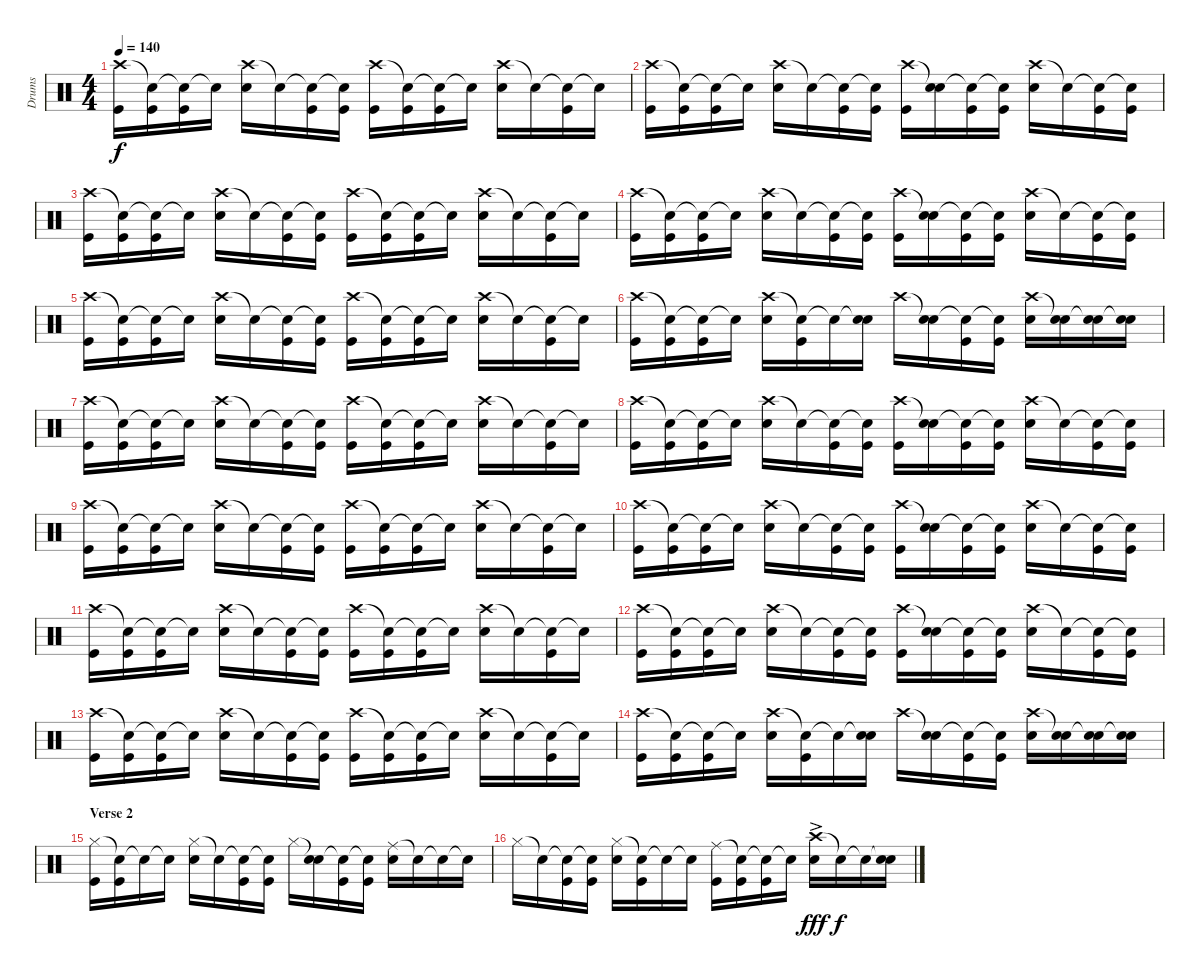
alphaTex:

\track ("Drums" "Drums") {instrument percussion}
\staff {score}
\articulation defaults
\ts (4 4)
\tempo 140
\clef neutral
\ks c
("Crash high (hit)" "Kick (hit)").16{dy f} ("Snare (hit)"{t} "Kick (hit)").16 ("Snare (hit)"{t} "Kick (hit)").16 "Snare (hit)"{t}.16 ("Crash high (hit)" "Electric Snare (hit)").16 "Snare (hit)"{t}.16 ("Snare (hit)"{t} "Kick (hit)").16 ("Snare (hit)"{t} "Kick (hit)").16 ("Crash high (hit)" "Kick (hit)").16 ("Snare (hit)"{t} "Kick (hit)").16 ("Snare (hit)"{t} "Kick (hit)").16 "Snare (hit)"{t}.16 ("Crash high (hit)" "Electric Snare (hit)").16 "Snare (hit)"{t}.16 ("Snare (hit)"{t} "Kick (hit)").16 "Snare (hit)"{t}.16 |
("Crash high (hit)" "Kick (hit)").16 ("Snare (hit)"{t} "Kick (hit)").16 ("Snare (hit)"{t} "Kick (hit)").16 "Snare (hit)"{t}.16 ("Crash high (hit)" "Electric Snare (hit)").16 "Snare (hit)"{t}.16 ("Snare (hit)"{t} "Kick (hit)").16 ("Snare (hit)"{t} "Kick (hit)").16 ("Crash high (hit)" "Kick (hit)").16 ("Snare (hit)"{t} "Electric Snare (hit)").16 ("Snare (hit)"{t} "Kick (hit)").16 ("Snare (hit)"{t} "Kick (hit)").16 ("Crash high (hit)" "Electric Snare (hit)").16 "Snare (hit)"{t}.16 ("Snare (hit)"{t} "Kick (hit)").16 ("Snare (hit)"{t} "Kick (hit)").16 |
("Crash high (hit)" "Kick (hit)").16 ("Snare (hit)"{t} "Kick (hit)").16 ("Snare (hit)"{t} "Kick (hit)").16 "Snare (hit)"{t}.16 ("Crash high (hit)" "Electric Snare (hit)").16 "Snare (hit)"{t}.16 ("Snare (hit)"{t} "Kick (hit)").16 ("Snare (hit)"{t} "Kick (hit)").16 ("Crash high (hit)" "Kick (hit)").16 ("Snare (hit)"{t} "Kick (hit)").16 ("Snare (hit)"{t} "Kick (hit)").16 "Snare (hit)"{t}.16 ("Crash high (hit)" "Electric Snare (hit)").16 "Snare (hit)"{t}.16 ("Snare (hit)"{t} "Kick (hit)").16 "Snare (hit)"{t}.16 |
("Crash high (hit)" "Kick (hit)").16 ("Snare (hit)"{t} "Kick (hit)").16 ("Snare (hit)"{t} "Kick (hit)").16 "Snare (hit)"{t}.16 ("Crash high (hit)" "Electric Snare (hit)").16 "Snare (hit)"{t}.16 ("Snare (hit)"{t} "Kick (hit)").16 ("Snare (hit)"{t} "Kick (hit)").16 ("Crash high (hit)" "Kick (hit)").16 ("Snare (hit)"{t} "Electric Snare (hit)").16 ("Snare (hit)"{t} "Kick (hit)").16 ("Snare (hit)"{t} "Kick (hit)").16 ("Crash high (hit)" "Electric Snare (hit)").16 "Snare (hit)"{t}.16 ("Snare (hit)"{t} "Kick (hit)").16 ("Snare (hit)"{t} "Kick (hit)").16 |
("Crash high (hit)" "Kick (hit)").16 ("Snare (hit)"{t} "Kick (hit)").16 ("Snare (hit)"{t} "Kick (hit)").16 "Snare (hit)"{t}.16 ("Crash high (hit)" "Electric Snare (hit)").16 "Snare (hit)"{t}.16 ("Snare (hit)"{t} "Kick (hit)").16 ("Snare (hit)"{t} "Kick (hit)").16 ("Crash high (hit)" "Kick (hit)").16 ("Snare (hit)"{t} "Kick (hit)").16 ("Snare (hit)"{t} "Kick (hit)").16 "Snare (hit)"{t}.16 ("Crash high (hit)" "Electric Snare (hit)").16 "Snare (hit)"{t}.16 ("Snare (hit)"{t} "Kick (hit)").16 "Snare (hit)"{t}.16 |
("Crash high (hit)" "Kick (hit)").16 ("Snare (hit)"{t} "Kick (hit)").16 ("Snare (hit)"{t} "Kick (hit)").16 "Snare (hit)"{t}.16 ("Crash high (hit)" "Electric Snare (hit)").16 ("Snare (hit)"{t} "Kick (hit)").16 "Snare (hit)"{t}.16 ("Snare (hit)"{t} "Electric Snare (hit)").16 "Crash high (hit)".16 ("Snare (hit)"{t} "Electric Snare (hit)").16 ("Snare (hit)"{t} "Kick (hit)").16 ("Snare (hit)"{t} "Kick (hit)").16 ("Crash high (hit)" "Electric Snare (hit)").16 ("Snare (hit)"{t} "Electric Snare (hit)").16 ("Snare (hit)"{t} "Electric Snare (hit)").16 ("Snare (hit)"{t} "Electric Snare (hit)").16 |
("Crash high (hit)" "Kick (hit)").16 ("Snare (hit)"{t} "Kick (hit)").16 ("Snare (hit)"{t} "Kick (hit)").16 "Snare (hit)"{t}.16 ("Crash high (hit)" "Electric Snare (hit)").16 "Snare (hit)"{t}.16 ("Snare (hit)"{t} "Kick (hit)").16 ("Snare (hit)"{t} "Kick (hit)").16 ("Crash high (hit)" "Kick (hit)").16 ("Snare (hit)"{t} "Kick (hit)").16 ("Snare (hit)"{t} "Kick (hit)").16 "Snare (hit)"{t}.16 ("Crash high (hit)" "Electric Snare (hit)").16 "Snare (hit)"{t}.16 ("Snare (hit)"{t} "Kick (hit)").16 "Snare (hit)"{t}.16 |
("Crash high (hit)" "Kick (hit)").16 ("Snare (hit)"{t} "Kick (hit)").16 ("Snare (hit)"{t} "Kick (hit)").16 "Snare (hit)"{t}.16 ("Crash high (hit)" "Electric Snare (hit)").16 "Snare (hit)"{t}.16 ("Snare (hit)"{t} "Kick (hit)").16 ("Snare (hit)"{t} "Kick (hit)").16 ("Crash high (hit)" "Kick (hit)").16 ("Snare (hit)"{t} "Electric Snare (hit)").16 ("Snare (hit)"{t} "Kick (hit)").16 ("Snare (hit)"{t} "Kick (hit)").16 ("Crash high (hit)" "Electric Snare (hit)").16 "Snare (hit)"{t}.16 ("Snare (hit)"{t} "Kick (hit)").16 ("Snare (hit)"{t} "Kick (hit)").16 |
("Crash high (hit)" "Kick (hit)").16 ("Snare (hit)"{t} "Kick (hit)").16 ("Snare (hit)"{t} "Kick (hit)").16 "Snare (hit)"{t}.16 ("Crash high (hit)" "Electric Snare (hit)").16 "Snare (hit)"{t}.16 ("Snare (hit)"{t} "Kick (hit)").16 ("Snare (hit)"{t} "Kick (hit)").16 ("Crash high (hit)" "Kick (hit)").16 ("Snare (hit)"{t} "Kick (hit)").16 ("Snare (hit)"{t} "Kick (hit)").16 "Snare (hit)"{t}.16 ("Crash high (hit)" "Electric Snare (hit)").16 "Snare (hit)"{t}.16 ("Snare (hit)"{t} "Kick (hit)").16 "Snare (hit)"{t}.16 |
("Crash high (hit)" "Kick (hit)").16 ("Snare (hit)"{t} "Kick (hit)").16 ("Snare (hit)"{t} "Kick (hit)").16 "Snare (hit)"{t}.16 ("Crash high (hit)" "Electric Snare (hit)").16 "Snare (hit)"{t}.16 ("Snare (hit)"{t} "Kick (hit)").16 ("Snare (hit)"{t} "Kick (hit)").16 ("Crash high (hit)" "Kick (hit)").16 ("Snare (hit)"{t} "Electric Snare (hit)").16 ("Snare (hit)"{t} "Kick (hit)").16 ("Snare (hit)"{t} "Kick (hit)").16 ("Crash high (hit)" "Electric Snare (hit)").16 "Snare (hit)"{t}.16 ("Snare (hit)"{t} "Kick (hit)").16 ("Snare (hit)"{t} "Kick (hit)").16 |
("Crash high (hit)" "Kick (hit)").16 ("Snare (hit)"{t} "Kick (hit)").16 ("Snare (hit)"{t} "Kick (hit)").16 "Snare (hit)"{t}.16 ("Crash high (hit)" "Electric Snare (hit)").16 "Snare (hit)"{t}.16 ("Snare (hit)"{t} "Kick (hit)").16 ("Snare (hit)"{t} "Kick (hit)").16 ("Crash high (hit)" "Kick (hit)").16 ("Snare (hit)"{t} "Kick (hit)").16 ("Snare (hit)"{t} "Kick (hit)").16 "Snare (hit)"{t}.16 ("Crash high (hit)" "Electric Snare (hit)").16 "Snare (hit)"{t}.16 ("Snare (hit)"{t} "Kick (hit)").16 "Snare (hit)"{t}.16 |
("Crash high (hit)" "Kick (hit)").16 ("Snare (hit)"{t} "Kick (hit)").16 ("Snare (hit)"{t} "Kick (hit)").16 "Snare (hit)"{t}.16 ("Crash high (hit)" "Electric Snare (hit)").16 "Snare (hit)"{t}.16 ("Snare (hit)"{t} "Kick (hit)").16 ("Snare (hit)"{t} "Kick (hit)").16 ("Crash high (hit)" "Kick (hit)").16 ("Snare (hit)"{t} "Electric Snare (hit)").16 ("Snare (hit)"{t} "Kick (hit)").16 ("Snare (hit)"{t} "Kick (hit)").16 ("Crash high (hit)" "Electric Snare (hit)").16 "Snare (hit)"{t}.16 ("Snare (hit)"{t} "Kick (hit)").16 ("Snare (hit)"{t} "Kick (hit)").16 |
("Crash high (hit)" "Kick (hit)").16 ("Snare (hit)"{t} "Kick (hit)").16 ("Snare (hit)"{t} "Kick (hit)").16 "Snare (hit)"{t}.16 ("Crash high (hit)" "Electric Snare (hit)").16 "Snare (hit)"{t}.16 ("Snare (hit)"{t} "Kick (hit)").16 ("Snare (hit)"{t} "Kick (hit)").16 ("Crash high (hit)" "Kick (hit)").16 ("Snare (hit)"{t} "Kick (hit)").16 ("Snare (hit)"{t} "Kick (hit)").16 "Snare (hit)"{t}.16 ("Crash high (hit)" "Electric Snare (hit)").16 "Snare (hit)"{t}.16 ("Snare (hit)"{t} "Kick (hit)").16 "Snare (hit)"{t}.16 |
("Crash high (hit)" "Kick (hit)").16 ("Snare (hit)"{t} "Kick (hit)").16 ("Snare (hit)"{t} "Kick (hit)").16 "Snare (hit)"{t}.16 ("Crash high (hit)" "Electric Snare (hit)").16 ("Snare (hit)"{t} "Kick (hit)").16 "Snare (hit)"{t}.16 ("Snare (hit)"{t} "Electric Snare (hit)").16 "Crash high (hit)".16 ("Snare (hit)"{t} "Electric Snare (hit)").16 ("Snare (hit)"{t} "Kick (hit)").16 ("Snare (hit)"{t} "Kick (hit)").16 ("Crash high (hit)" "Electric Snare (hit)").16 ("Snare (hit)"{t} "Electric Snare (hit)").16 ("Snare (hit)"{t} "Electric Snare (hit)").16 ("Snare (hit)"{t} "Electric Snare (hit)").16 |
\section ("" "Verse 2")
("Hi-Hat (closed)" "Kick (hit)").16 ("Snare (hit)"{t} "Kick (hit)").16 "Snare (hit)"{t}.16 "Snare (hit)"{t}.16 ("Hi-Hat (closed)" "Electric Snare (hit)").16 "Snare (hit)"{t}.16 ("Snare (hit)"{t} "Kick (hit)").16 ("Snare (hit)"{t} "Kick (hit)").16 "Hi-Hat (closed)".16 ("Snare (hit)"{t} "Electric Snare (hit)").16 ("Snare (hit)"{t} "Kick (hit)").16 ("Snare (hit)"{t} "Kick (hit)").16 ("Ride (middle)" "Electric Snare (hit)").16 "Snare (hit)"{t}.16 "Snare (hit)"{t}.16 "Snare (hit)"{t}.16 |
"Hi-Hat (closed)".16 "Snare (hit)"{t}.16 ("Snare (hit)"{t} "Kick (hit)").16 ("Snare (hit)"{t} "Kick (hit)").16 ("Hi-Hat (closed)" "Electric Snare (hit)").16 ("Snare (hit)"{t} "Kick (hit)").16 "Snare (hit)"{t}.16 "Snare (hit)"{t}.16 ("Ride (middle)" "Kick (hit)").16 ("Snare (hit)"{t} "Kick (hit)").16 ("Snare (hit)"{t} "Kick (hit)").16 "Snare (hit)"{t}.16 ("Crash high (hit)"{ac} "Electric Snare (hit)").16{dy fff} "Snare (hit)"{t}.16{dy f} "Snare (hit)"{t}.16 ("Snare (hit)"{t} "Electric Snare (hit)").16
